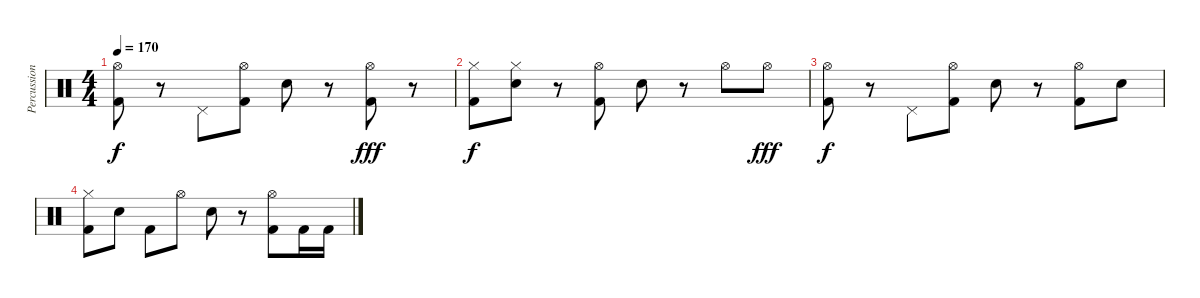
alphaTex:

\track ("Percussion" "Percussion") {instrument percussion}
\staff {score}
\articulation defaults
\ts (4 4)
\tempo 170
\clef neutral
\ks c
("Hi-Hat (open)" "Kick (hit) 2").8{dy f} r.8 "Pedal Hi-Hat (hit)".8 ("Hi-Hat (open)" "Kick (hit) 2").8 "Snare (hit) 2".8 r.8 ("Hi-Hat (open)" "Kick (hit) 2").8{dy fff} r.8 |
("Hi-Hat (closed)" "Kick (hit) 2").8{dy f} ("Hi-Hat (closed)" "Snare (hit) 2").8 r.8 ("Hi-Hat (open)" "Kick (hit) 2").8 "Snare (hit) 2".8 r.8 "Hi-Hat (open)".8 "Hi-Hat (open)".8{dy fff} |
("Hi-Hat (open)" "Kick (hit) 2").8{dy f} r.8 "Pedal Hi-Hat (hit)".8 ("Hi-Hat (open)" "Kick (hit) 2").8 "Snare (hit) 2".8 r.8 ("Hi-Hat (open)" "Kick (hit) 2").8 "Snare (hit) 2".8 |
("Hi-Hat (closed)" "Kick (hit) 2").8 "Snare (hit) 2".8 "Kick (hit) 2".8 "Hi-Hat (open)".8 "Snare (hit) 2".8 r.8 ("Hi-Hat (open)" "Kick (hit) 2").8 "Kick (hit) 2".16 "Kick (hit) 2".16
